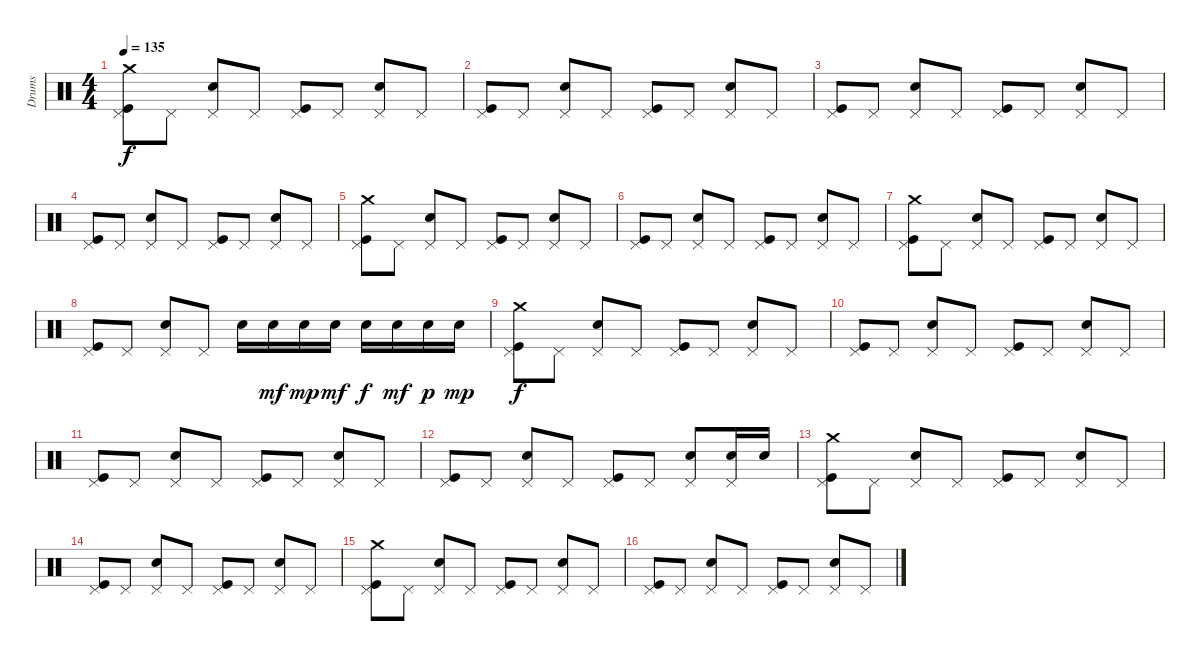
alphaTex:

\track ("Drums" "Drums") {instrument percussion}
\staff {score}
\articulation defaults
\ts (4 4)
\tempo 135
\clef neutral
\ks c
("Pedal Hi-Hat (hit)" "Kick (hit)" "Crash medium (hit)").8{dy f} "Pedal Hi-Hat (hit)".8 ("Pedal Hi-Hat (hit)" "Electric Snare (hit)").8 "Pedal Hi-Hat (hit)".8 ("Pedal Hi-Hat (hit)" "Kick (hit)").8 "Pedal Hi-Hat (hit)".8 ("Pedal Hi-Hat (hit)" "Electric Snare (hit)").8 "Pedal Hi-Hat (hit)".8 |
("Pedal Hi-Hat (hit)" "Kick (hit)").8 "Pedal Hi-Hat (hit)".8 ("Pedal Hi-Hat (hit)" "Electric Snare (hit)").8 "Pedal Hi-Hat (hit)".8 ("Pedal Hi-Hat (hit)" "Kick (hit)").8 "Pedal Hi-Hat (hit)".8 ("Pedal Hi-Hat (hit)" "Electric Snare (hit)").8 "Pedal Hi-Hat (hit)".8 |
("Pedal Hi-Hat (hit)" "Kick (hit)").8 "Pedal Hi-Hat (hit)".8 ("Pedal Hi-Hat (hit)" "Electric Snare (hit)").8 "Pedal Hi-Hat (hit)".8 ("Pedal Hi-Hat (hit)" "Kick (hit)").8 "Pedal Hi-Hat (hit)".8 ("Pedal Hi-Hat (hit)" "Electric Snare (hit)").8 "Pedal Hi-Hat (hit)".8 |
("Pedal Hi-Hat (hit)" "Kick (hit)").8 "Pedal Hi-Hat (hit)".8 ("Pedal Hi-Hat (hit)" "Electric Snare (hit)").8 "Pedal Hi-Hat (hit)".8 ("Pedal Hi-Hat (hit)" "Kick (hit)").8 "Pedal Hi-Hat (hit)".8 ("Pedal Hi-Hat (hit)" "Electric Snare (hit)").8 "Pedal Hi-Hat (hit)".8 |
("Pedal Hi-Hat (hit)" "Kick (hit)" "Crash medium (hit)").8 "Pedal Hi-Hat (hit)".8 ("Pedal Hi-Hat (hit)" "Electric Snare (hit)").8 "Pedal Hi-Hat (hit)".8 ("Pedal Hi-Hat (hit)" "Kick (hit)").8 "Pedal Hi-Hat (hit)".8 ("Pedal Hi-Hat (hit)" "Electric Snare (hit)").8 "Pedal Hi-Hat (hit)".8 |
("Pedal Hi-Hat (hit)" "Kick (hit)").8 "Pedal Hi-Hat (hit)".8 ("Pedal Hi-Hat (hit)" "Electric Snare (hit)").8 "Pedal Hi-Hat (hit)".8 ("Pedal Hi-Hat (hit)" "Kick (hit)").8 "Pedal Hi-Hat (hit)".8 ("Pedal Hi-Hat (hit)" "Electric Snare (hit)").8 "Pedal Hi-Hat (hit)".8 |
("Pedal Hi-Hat (hit)" "Kick (hit)" "Crash medium (hit)").8 "Pedal Hi-Hat (hit)".8 ("Pedal Hi-Hat (hit)" "Electric Snare (hit)").8 "Pedal Hi-Hat (hit)".8 ("Pedal Hi-Hat (hit)" "Kick (hit)").8 "Pedal Hi-Hat (hit)".8 ("Pedal Hi-Hat (hit)" "Electric Snare (hit)").8 "Pedal Hi-Hat (hit)".8 |
("Pedal Hi-Hat (hit)" "Kick (hit)").8 "Pedal Hi-Hat (hit)".8 ("Pedal Hi-Hat (hit)" "Electric Snare (hit)").8 "Pedal Hi-Hat (hit)".8 "Electric Snare (hit)".16 "Electric Snare (hit)".16{dy mf} "Electric Snare (hit)".16{dy mp} "Electric Snare (hit)".16{dy mf} "Electric Snare (hit)".16{dy f} "Electric Snare (hit)".16{dy mf} "Electric Snare (hit)".16{dy p} "Electric Snare (hit)".16{dy mp} |
("Pedal Hi-Hat (hit)" "Kick (hit)" "Crash medium (hit)").8{dy f} "Pedal Hi-Hat (hit)".8 ("Pedal Hi-Hat (hit)" "Electric Snare (hit)").8 "Pedal Hi-Hat (hit)".8 ("Pedal Hi-Hat (hit)" "Kick (hit)").8 "Pedal Hi-Hat (hit)".8 ("Pedal Hi-Hat (hit)" "Electric Snare (hit)").8 "Pedal Hi-Hat (hit)".8 |
("Pedal Hi-Hat (hit)" "Kick (hit)").8 "Pedal Hi-Hat (hit)".8 ("Pedal Hi-Hat (hit)" "Electric Snare (hit)").8 "Pedal Hi-Hat (hit)".8 ("Pedal Hi-Hat (hit)" "Kick (hit)").8 "Pedal Hi-Hat (hit)".8 ("Pedal Hi-Hat (hit)" "Electric Snare (hit)").8 "Pedal Hi-Hat (hit)".8 |
("Pedal Hi-Hat (hit)" "Kick (hit)").8 "Pedal Hi-Hat (hit)".8 ("Pedal Hi-Hat (hit)" "Electric Snare (hit)").8 "Pedal Hi-Hat (hit)".8 ("Pedal Hi-Hat (hit)" "Kick (hit)").8 "Pedal Hi-Hat (hit)".8 ("Pedal Hi-Hat (hit)" "Electric Snare (hit)").8 "Pedal Hi-Hat (hit)".8 |
("Pedal Hi-Hat (hit)" "Kick (hit)").8 "Pedal Hi-Hat (hit)".8 ("Pedal Hi-Hat (hit)" "Electric Snare (hit)").8 "Pedal Hi-Hat (hit)".8 ("Pedal Hi-Hat (hit)" "Kick (hit)").8 "Pedal Hi-Hat (hit)".8 ("Pedal Hi-Hat (hit)" "Electric Snare (hit)").8 ("Pedal Hi-Hat (hit)" "Electric Snare (hit)").16 "Electric Snare (hit)".16 |
("Pedal Hi-Hat (hit)" "Kick (hit)" "Crash medium (hit)").8 "Pedal Hi-Hat (hit)".8 ("Pedal Hi-Hat (hit)" "Electric Snare (hit)").8 "Pedal Hi-Hat (hit)".8 ("Pedal Hi-Hat (hit)" "Kick (hit)").8 "Pedal Hi-Hat (hit)".8 ("Pedal Hi-Hat (hit)" "Electric Snare (hit)").8 "Pedal Hi-Hat (hit)".8 |
("Pedal Hi-Hat (hit)" "Kick (hit)").8 "Pedal Hi-Hat (hit)".8 ("Pedal Hi-Hat (hit)" "Electric Snare (hit)").8 "Pedal Hi-Hat (hit)".8 ("Pedal Hi-Hat (hit)" "Kick (hit)").8 "Pedal Hi-Hat (hit)".8 ("Pedal Hi-Hat (hit)" "Electric Snare (hit)").8 "Pedal Hi-Hat (hit)".8 |
("Pedal Hi-Hat (hit)" "Kick (hit)" "Crash medium (hit)").8 "Pedal Hi-Hat (hit)".8 ("Pedal Hi-Hat (hit)" "Electric Snare (hit)").8 "Pedal Hi-Hat (hit)".8 ("Pedal Hi-Hat (hit)" "Kick (hit)").8 "Pedal Hi-Hat (hit)".8 ("Pedal Hi-Hat (hit)" "Electric Snare (hit)").8 "Pedal Hi-Hat (hit)".8 |
("Pedal Hi-Hat (hit)" "Kick (hit)").8 "Pedal Hi-Hat (hit)".8 ("Pedal Hi-Hat (hit)" "Electric Snare (hit)").8 "Pedal Hi-Hat (hit)".8 ("Pedal Hi-Hat (hit)" "Kick (hit)").8 "Pedal Hi-Hat (hit)".8 ("Pedal Hi-Hat (hit)" "Electric Snare (hit)").8 "Pedal Hi-Hat (hit)".8
